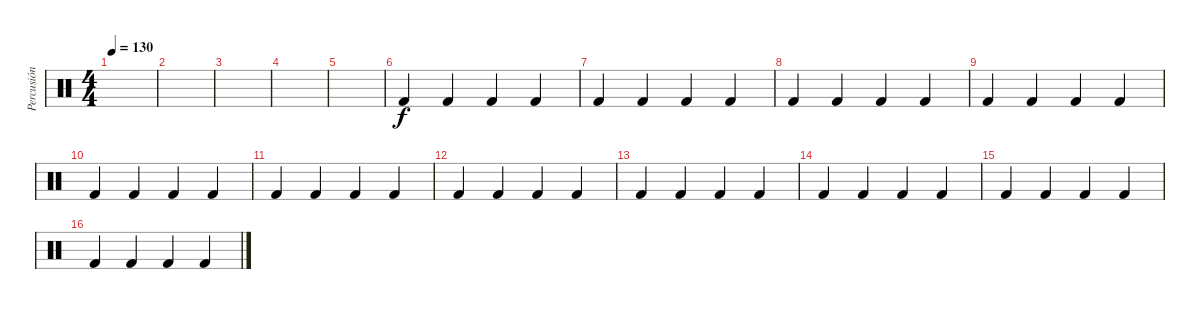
\track ("Percusión" "Percusión") {instrument percussion}
\staff {score}
\articulation defaults
\ts (4 4)
\tempo 130
\clef neutral
\ks c
|
|
|
|
|
"Kick (hit) 2".4 "Kick (hit) 2".4 "Kick (hit) 2".4 "Kick (hit) 2".4 |
"Kick (hit) 2".4 "Kick (hit) 2".4 "Kick (hit) 2".4 "Kick (hit) 2".4 |
"Kick (hit) 2".4 "Kick (hit) 2".4 "Kick (hit) 2".4 "Kick (hit) 2".4 |
"Kick (hit) 2".4 "Kick (hit) 2".4 "Kick (hit) 2".4 "Kick (hit) 2".4 |
"Kick (hit) 2".4 "Kick (hit) 2".4 "Kick (hit) 2".4 "Kick (hit) 2".4 |
"Kick (hit) 2".4 "Kick (hit) 2".4 "Kick (hit) 2".4 "Kick (hit) 2".4 |
"Kick (hit) 2".4 "Kick (hit) 2".4 "Kick (hit) 2".4 "Kick (hit) 2".4 |
"Kick (hit) 2".4 "Kick (hit) 2".4 "Kick (hit) 2".4 "Kick (hit) 2".4 |
"Kick (hit) 2".4 "Kick (hit) 2".4 "Kick (hit) 2".4 "Kick (hit) 2".4 |
"Kick (hit) 2".4 "Kick (hit) 2".4 "Kick (hit) 2".4 "Kick (hit) 2".4 |
"Kick (hit) 2".4 "Kick (hit) 2".4 "Kick (hit) 2".4 "Kick (hit) 2".4
